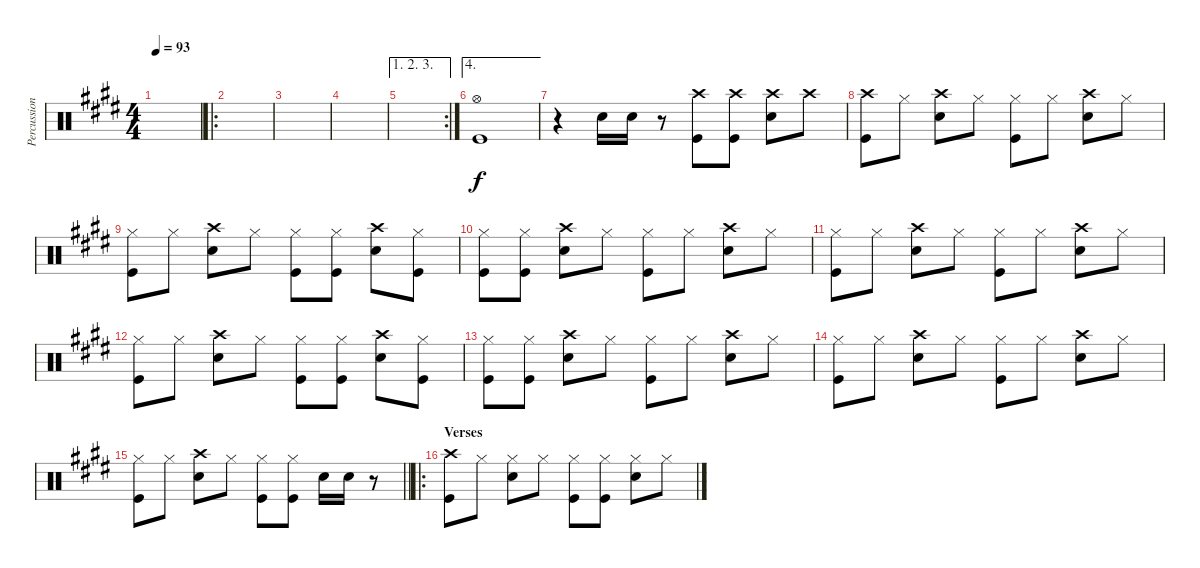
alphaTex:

\track ("Percussion" "Percussion") {instrument percussion}
\staff {score}
\articulation defaults
\ts (4 4)
\tempo 93
\clef neutral
\ks e
|
\ro
\ks c#minor
|
|
|
\ae (1 2 3)
\rc 2
|
\ae 4
("Hi-Hat (open)" "Kick (hit)").1 |
r.4 "Snare (hit) 2".16 "Snare (hit) 2".16 r.8 ("Kick (hit)" "Crash high (hit)").8 ("Kick (hit)" "Crash high (hit)").8 ("Snare (hit) 2" "Crash high (hit)").8 "Crash high (hit)".8 |
("Kick (hit)" "Crash high (hit)").8 "Hi-Hat (closed)".8 ("Snare (hit) 2" "Crash high (hit)").8 "Hi-Hat (closed)".8 ("Kick (hit)" "Hi-Hat (closed)").8 "Hi-Hat (closed)".8 ("Snare (hit) 2" "Crash high (hit)").8 "Hi-Hat (closed)".8 |
("Hi-Hat (closed)" "Kick (hit)").8 "Hi-Hat (closed)".8 ("Crash high (hit)" "Snare (hit) 2").8 "Hi-Hat (closed)".8 ("Hi-Hat (closed)" "Kick (hit)").8 ("Hi-Hat (closed)" "Kick (hit)").8 ("Crash high (hit)" "Snare (hit) 2").8 ("Hi-Hat (closed)" "Kick (hit)").8 |
("Hi-Hat (closed)" "Kick (hit)").8 ("Hi-Hat (closed)" "Kick (hit)").8 ("Crash high (hit)" "Snare (hit) 2").8 "Hi-Hat (closed)".8 ("Hi-Hat (closed)" "Kick (hit)").8 "Hi-Hat (closed)".8 ("Crash high (hit)" "Snare (hit) 2").8 "Hi-Hat (closed)".8 |
("Hi-Hat (closed)" "Kick (hit)").8 "Hi-Hat (closed)".8 ("Crash high (hit)" "Snare (hit) 2").8 "Hi-Hat (closed)".8 ("Hi-Hat (closed)" "Kick (hit)").8 "Hi-Hat (closed)".8 ("Crash high (hit)" "Snare (hit) 2").8 "Hi-Hat (closed)".8 |
("Hi-Hat (closed)" "Kick (hit)").8 "Hi-Hat (closed)".8 ("Crash high (hit)" "Snare (hit) 2").8 "Hi-Hat (closed)".8 ("Hi-Hat (closed)" "Kick (hit)").8 ("Hi-Hat (closed)" "Kick (hit)").8 ("Crash high (hit)" "Snare (hit) 2").8 ("Hi-Hat (closed)" "Kick (hit)").8 |
("Hi-Hat (closed)" "Kick (hit)").8 ("Hi-Hat (closed)" "Kick (hit)").8 ("Crash high (hit)" "Snare (hit) 2").8 "Hi-Hat (closed)".8 ("Hi-Hat (closed)" "Kick (hit)").8 "Hi-Hat (closed)".8 ("Crash high (hit)" "Snare (hit) 2").8 "Hi-Hat (closed)".8 |
("Hi-Hat (closed)" "Kick (hit)").8 "Hi-Hat (closed)".8 ("Crash high (hit)" "Snare (hit) 2").8 "Hi-Hat (closed)".8 ("Hi-Hat (closed)" "Kick (hit)").8 "Hi-Hat (closed)".8 ("Crash high (hit)" "Snare (hit) 2").8 "Hi-Hat (closed)".8 |
\barLineRight lightlight
("Hi-Hat (closed)" "Kick (hit)").8 "Hi-Hat (closed)".8 ("Crash high (hit)" "Snare (hit) 2").8 "Hi-Hat (closed)".8 ("Hi-Hat (closed)" "Kick (hit)").8 ("Hi-Hat (closed)" "Kick (hit)").8 "Snare (hit) 2".16 "Snare (hit) 2".16 r.8 |
\ro
\section ("" "Verses")
("Crash high (hit)" "Kick (hit)").8 "Hi-Hat (closed)".8 ("Hi-Hat (closed)" "Snare (hit) 2").8 "Hi-Hat (closed)".8 ("Hi-Hat (closed)" "Kick (hit)").8 ("Hi-Hat (closed)" "Kick (hit)").8 ("Hi-Hat (closed)" "Snare (hit) 2").8 "Hi-Hat (closed)".8
